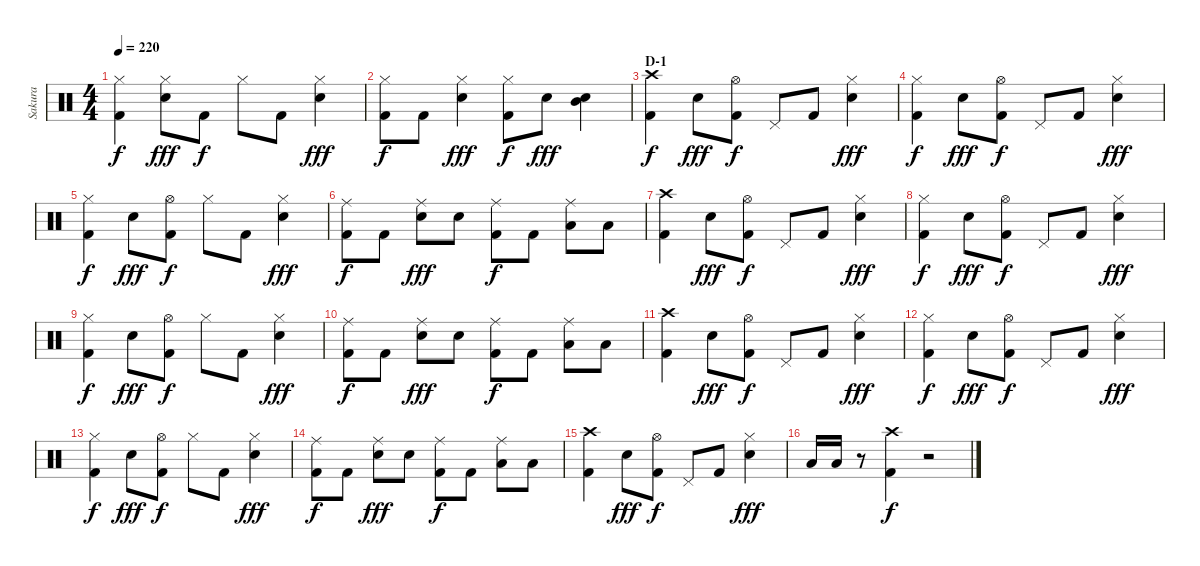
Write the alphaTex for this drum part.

\track ("Sakura" "Sakura") {instrument percussion}
\staff {score}
\articulation defaults
\ts (4 4)
\tempo 220
\clef neutral
\ks c
("Hi-Hat (closed)" "Kick (hit) 2").4{dy f} ("Hi-Hat (closed)" "Electric Snare (hit)").8{dy fff} "Kick (hit) 2".8{dy f} "Hi-Hat (closed)".8 "Kick (hit) 2".8 ("Hi-Hat (closed)" "Electric Snare (hit)").4{dy fff} |
("Hi-Hat (closed)" "Kick (hit) 2").8{dy f} "Kick (hit) 2".8 ("Hi-Hat (closed)" "Electric Snare (hit)").4{dy fff} ("Hi-Hat (closed)" "Kick (hit) 2").8{dy f} "Electric Snare (hit)".8{dy fff} ("Mid Tom (hit)" "Electric Snare (hit)").4 |
\section ("" "D-1")
("Crash high (hit)" "Kick (hit) 2").4{dy f} "Electric Snare (hit)".8{dy fff} ("Hi-Hat (open)" "Kick (hit) 2").8{dy f} "Pedal Hi-Hat (hit)".8 "Kick (hit) 2".8 ("Hi-Hat (closed)" "Electric Snare (hit)").4{dy fff} |
("Hi-Hat (closed)" "Kick (hit) 2").4{dy f} "Electric Snare (hit)".8{dy fff} ("Hi-Hat (open)" "Kick (hit) 2").8{dy f} "Pedal Hi-Hat (hit)".8 "Kick (hit) 2".8 ("Hi-Hat (closed)" "Electric Snare (hit)").4{dy fff} |
("Hi-Hat (closed)" "Kick (hit) 2").4{dy f} "Electric Snare (hit)".8{dy fff} ("Hi-Hat (open)" "Kick (hit) 2").8{dy f} "Hi-Hat (closed)".8 "Kick (hit) 2".8 ("Hi-Hat (closed)" "Electric Snare (hit)").4{dy fff} |
("Ride (middle)" "Kick (hit) 2").8{dy f} "Kick (hit) 2".8 ("Ride (middle)" "Electric Snare (hit)").8{dy fff} "Electric Snare (hit)".8 ("Ride (middle)" "Kick (hit) 2").8{dy f} "Kick (hit) 2".8 ("Ride (middle)" "Low Tom (hit)").8 "Low Tom (hit)".8 |
("Crash high (hit)" "Kick (hit) 2").4 "Electric Snare (hit)".8{dy fff} ("Hi-Hat (open)" "Kick (hit) 2").8{dy f} "Pedal Hi-Hat (hit)".8 "Kick (hit) 2".8 ("Hi-Hat (closed)" "Electric Snare (hit)").4{dy fff} |
("Hi-Hat (closed)" "Kick (hit) 2").4{dy f} "Electric Snare (hit)".8{dy fff} ("Hi-Hat (open)" "Kick (hit) 2").8{dy f} "Pedal Hi-Hat (hit)".8 "Kick (hit) 2".8 ("Hi-Hat (closed)" "Electric Snare (hit)").4{dy fff} |
("Hi-Hat (closed)" "Kick (hit) 2").4{dy f} "Electric Snare (hit)".8{dy fff} ("Hi-Hat (open)" "Kick (hit) 2").8{dy f} "Hi-Hat (closed)".8 "Kick (hit) 2".8 ("Hi-Hat (closed)" "Electric Snare (hit)").4{dy fff} |
("Ride (middle)" "Kick (hit) 2").8{dy f} "Kick (hit) 2".8 ("Ride (middle)" "Electric Snare (hit)").8{dy fff} "Electric Snare (hit)".8 ("Ride (middle)" "Kick (hit) 2").8{dy f} "Kick (hit) 2".8 ("Ride (middle)" "Low Tom (hit)").8 "Low Tom (hit)".8 |
("Crash high (hit)" "Kick (hit) 2").4 "Electric Snare (hit)".8{dy fff} ("Hi-Hat (open)" "Kick (hit) 2").8{dy f} "Pedal Hi-Hat (hit)".8 "Kick (hit) 2".8 ("Hi-Hat (closed)" "Electric Snare (hit)").4{dy fff} |
("Hi-Hat (closed)" "Kick (hit) 2").4{dy f} "Electric Snare (hit)".8{dy fff} ("Hi-Hat (open)" "Kick (hit) 2").8{dy f} "Pedal Hi-Hat (hit)".8 "Kick (hit) 2".8 ("Hi-Hat (closed)" "Electric Snare (hit)").4{dy fff} |
("Hi-Hat (closed)" "Kick (hit) 2").4{dy f} "Electric Snare (hit)".8{dy fff} ("Hi-Hat (open)" "Kick (hit) 2").8{dy f} "Hi-Hat (closed)".8 "Kick (hit) 2".8 ("Hi-Hat (closed)" "Electric Snare (hit)").4{dy fff} |
("Ride (middle)" "Kick (hit) 2").8{dy f} "Kick (hit) 2".8 ("Ride (middle)" "Electric Snare (hit)").8{dy fff} "Electric Snare (hit)".8 ("Ride (middle)" "Kick (hit) 2").8{dy f} "Kick (hit) 2".8 ("Ride (middle)" "Low Tom (hit)").8 "Low Tom (hit)".8 |
("Crash high (hit)" "Kick (hit) 2").4 "Electric Snare (hit)".8{dy fff} ("Hi-Hat (open)" "Kick (hit) 2").8{dy f} "Pedal Hi-Hat (hit)".8 "Kick (hit) 2".8 ("Hi-Hat (closed)" "Electric Snare (hit)").4{dy fff} |
"Low Tom (hit)".16 "Low Tom (hit)".16 r.8 ("Crash high (hit)" "Kick (hit) 2").4{dy f} r.2
